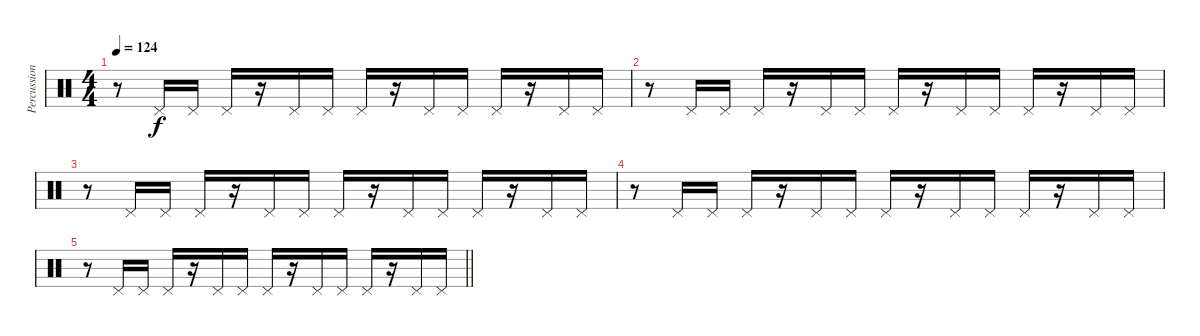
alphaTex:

\track ("Percussion" "Percussion") {instrument percussion}
\staff {score}
\articulation defaults
\ts (4 4)
\tempo 124
\clef neutral
\ks c
r.8{dy f} "Pedal Hi-Hat (hit)".16 "Pedal Hi-Hat (hit)".16 "Pedal Hi-Hat (hit)".16 r.16 "Pedal Hi-Hat (hit)".16 "Pedal Hi-Hat (hit)".16 "Pedal Hi-Hat (hit)".16 r.16 "Pedal Hi-Hat (hit)".16 "Pedal Hi-Hat (hit)".16 "Pedal Hi-Hat (hit)".16 r.16 "Pedal Hi-Hat (hit)".16 "Pedal Hi-Hat (hit)".16 |
r.8 "Pedal Hi-Hat (hit)".16 "Pedal Hi-Hat (hit)".16 "Pedal Hi-Hat (hit)".16 r.16 "Pedal Hi-Hat (hit)".16 "Pedal Hi-Hat (hit)".16 "Pedal Hi-Hat (hit)".16 r.16 "Pedal Hi-Hat (hit)".16 "Pedal Hi-Hat (hit)".16 "Pedal Hi-Hat (hit)".16 r.16 "Pedal Hi-Hat (hit)".16 "Pedal Hi-Hat (hit)".16 |
r.8 "Pedal Hi-Hat (hit)".16 "Pedal Hi-Hat (hit)".16 "Pedal Hi-Hat (hit)".16 r.16 "Pedal Hi-Hat (hit)".16 "Pedal Hi-Hat (hit)".16 "Pedal Hi-Hat (hit)".16 r.16 "Pedal Hi-Hat (hit)".16 "Pedal Hi-Hat (hit)".16 "Pedal Hi-Hat (hit)".16 r.16 "Pedal Hi-Hat (hit)".16 "Pedal Hi-Hat (hit)".16 |
r.8 "Pedal Hi-Hat (hit)".16 "Pedal Hi-Hat (hit)".16 "Pedal Hi-Hat (hit)".16 r.16 "Pedal Hi-Hat (hit)".16 "Pedal Hi-Hat (hit)".16 "Pedal Hi-Hat (hit)".16 r.16 "Pedal Hi-Hat (hit)".16 "Pedal Hi-Hat (hit)".16 "Pedal Hi-Hat (hit)".16 r.16 "Pedal Hi-Hat (hit)".16 "Pedal Hi-Hat (hit)".16 |
\barLineRight lightlight
r.8 "Pedal Hi-Hat (hit)".16 "Pedal Hi-Hat (hit)".16 "Pedal Hi-Hat (hit)".16 r.16 "Pedal Hi-Hat (hit)".16 "Pedal Hi-Hat (hit)".16 "Pedal Hi-Hat (hit)".16 r.16 "Pedal Hi-Hat (hit)".16 "Pedal Hi-Hat (hit)".16 "Pedal Hi-Hat (hit)".16 r.16 "Pedal Hi-Hat (hit)".16 "Pedal Hi-Hat (hit)".16
